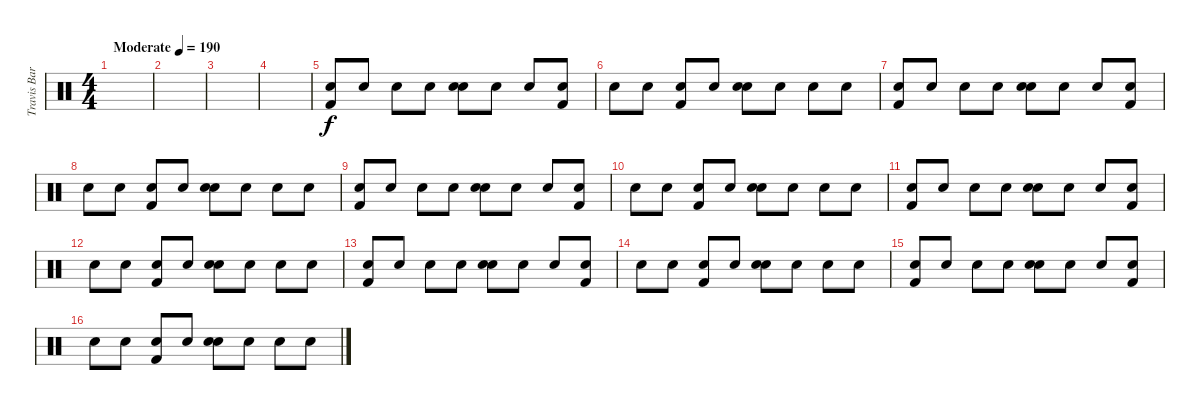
\track ("Travis Barker - Drums" "Travis Bar") {instrument percussion}
\staff {score}
\articulation defaults
\ts (4 4)
\tempo (190 "Moderate")
\clef neutral
\ks c
|
|
|
|
("Snare (hit)" "Kick (hit) 2").8 "Snare (hit)".8 "Snare (hit)".8 "Snare (hit)".8 ("Snare (hit)" "Electric Snare (hit)").8 "Snare (hit)".8 "Snare (hit)".8 ("Snare (hit)" "Kick (hit) 2").8 |
"Snare (hit)".8 "Snare (hit)".8 ("Snare (hit)" "Kick (hit) 2").8 "Snare (hit)".8 ("Snare (hit)" "Electric Snare (hit)").8 "Snare (hit)".8 "Snare (hit)".8 "Snare (hit)".8 |
("Snare (hit)" "Kick (hit) 2").8 "Snare (hit)".8 "Snare (hit)".8 "Snare (hit)".8 ("Snare (hit)" "Electric Snare (hit)").8 "Snare (hit)".8 "Snare (hit)".8 ("Snare (hit)" "Kick (hit) 2").8 |
"Snare (hit)".8 "Snare (hit)".8 ("Snare (hit)" "Kick (hit) 2").8 "Snare (hit)".8 ("Snare (hit)" "Electric Snare (hit)").8 "Snare (hit)".8 "Snare (hit)".8 "Snare (hit)".8 |
("Snare (hit)" "Kick (hit) 2").8 "Snare (hit)".8 "Snare (hit)".8 "Snare (hit)".8 ("Snare (hit)" "Electric Snare (hit)").8 "Snare (hit)".8 "Snare (hit)".8 ("Snare (hit)" "Kick (hit) 2").8 |
"Snare (hit)".8 "Snare (hit)".8 ("Snare (hit)" "Kick (hit) 2").8 "Snare (hit)".8 ("Snare (hit)" "Electric Snare (hit)").8 "Snare (hit)".8 "Snare (hit)".8 "Snare (hit)".8 |
("Snare (hit)" "Kick (hit) 2").8 "Snare (hit)".8 "Snare (hit)".8 "Snare (hit)".8 ("Snare (hit)" "Electric Snare (hit)").8 "Snare (hit)".8 "Snare (hit)".8 ("Snare (hit)" "Kick (hit) 2").8 |
"Snare (hit)".8 "Snare (hit)".8 ("Snare (hit)" "Kick (hit) 2").8 "Snare (hit)".8 ("Snare (hit)" "Electric Snare (hit)").8 "Snare (hit)".8 "Snare (hit)".8 "Snare (hit)".8 |
("Snare (hit)" "Kick (hit) 2").8 "Snare (hit)".8 "Snare (hit)".8 "Snare (hit)".8 ("Snare (hit)" "Electric Snare (hit)").8 "Snare (hit)".8 "Snare (hit)".8 ("Snare (hit)" "Kick (hit) 2").8 |
"Snare (hit)".8 "Snare (hit)".8 ("Snare (hit)" "Kick (hit) 2").8 "Snare (hit)".8 ("Snare (hit)" "Electric Snare (hit)").8 "Snare (hit)".8 "Snare (hit)".8 "Snare (hit)".8 |
("Snare (hit)" "Kick (hit) 2").8 "Snare (hit)".8 "Snare (hit)".8 "Snare (hit)".8 ("Snare (hit)" "Electric Snare (hit)").8 "Snare (hit)".8 "Snare (hit)".8 ("Snare (hit)" "Kick (hit) 2").8 |
"Snare (hit)".8 "Snare (hit)".8 ("Snare (hit)" "Kick (hit) 2").8 "Snare (hit)".8 ("Snare (hit)" "Electric Snare (hit)").8 "Snare (hit)".8 "Snare (hit)".8 "Snare (hit)".8
